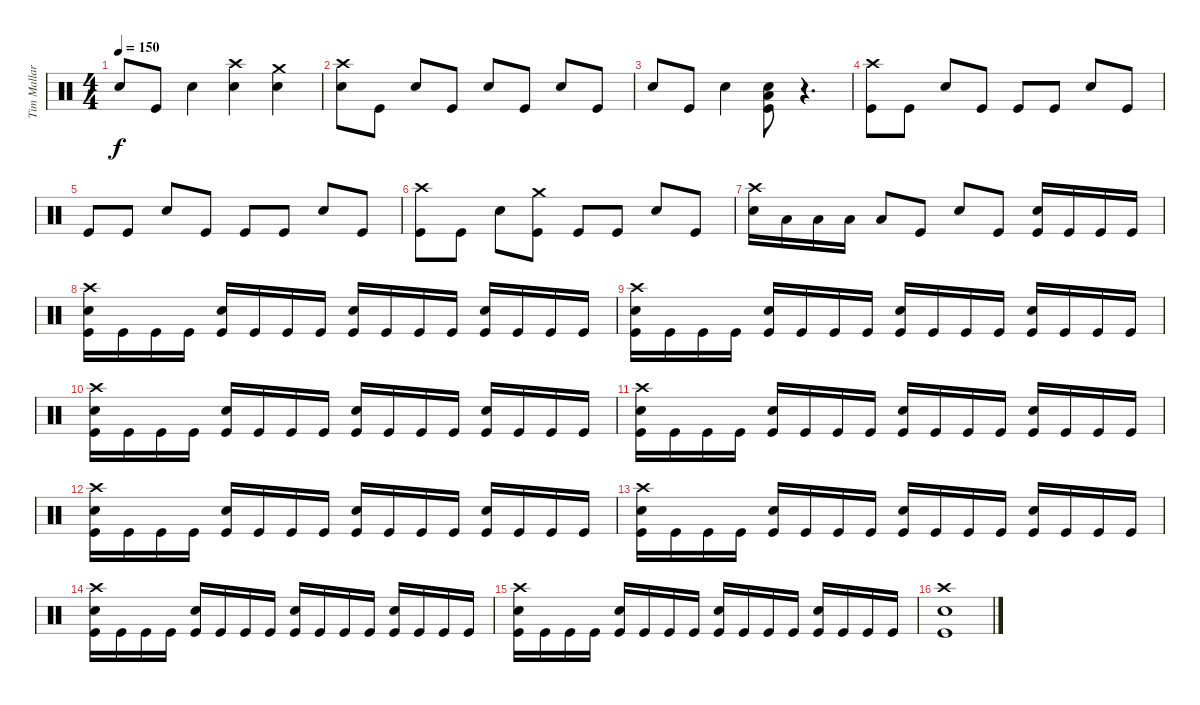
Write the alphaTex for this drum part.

\track ("Tim Mallare-Drums" "Tim Mallar") {instrument percussion}
\staff {score}
\articulation defaults
\ts (4 4)
\tempo 150
\clef neutral
\ks c "Electric Snare (hit)".8{dy f} "Kick (hit)".8 "Electric Snare (hit)".4
("Crash high (hit)" "Electric Snare (hit)").4 ("Crash medium (hit)" "Electric Snare (hit)").4 |
("Crash high (hit)" "Electric Snare (hit)").8 "Kick (hit)".8 "Electric Snare (hit)".8 "Kick (hit)".8 "Electric Snare (hit)".8 "Kick (hit)".8 "Electric Snare (hit)".8 "Kick (hit)".8 |
"Electric Snare (hit)".8 "Kick (hit)".8 "Electric Snare (hit)".4 ("Low Tom (hit)" "Electric Snare (hit)" "Kick (hit)").8 r.4{d} |
("Crash high (hit)" "Kick (hit)").8 "Kick (hit)".8 "Electric Snare (hit)".8 "Kick (hit)".8 "Kick (hit)".8 "Kick (hit)".8 "Electric Snare (hit)".8 "Kick (hit)".8 |
"Kick (hit)".8 "Kick (hit)".8 "Electric Snare (hit)".8 "Kick (hit)".8 "Kick (hit)".8 "Kick (hit)".8 "Electric Snare (hit)".8 "Kick (hit)".8 |
("Crash high (hit)" "Kick (hit)").8 "Kick (hit)".8 "Electric Snare (hit)".8 ("Crash medium (hit)" "Kick (hit)").8 "Kick (hit)".8 "Kick (hit)".8 "Electric Snare (hit)".8 "Kick (hit)".8 |
("Crash high (hit)" "Electric Snare (hit)").16 "Low Tom (hit)".16 "Low Tom (hit)".16 "Low Tom (hit)".16 "Low Tom (hit)".8 "Kick (hit)".8 "Electric Snare (hit)".8 "Kick (hit)".8 ("Electric Snare (hit)" "Kick (hit)").16 "Kick (hit)".16 "Kick (hit)".16 "Kick (hit)".16 |
("Crash high (hit)" "Electric Snare (hit)" "Kick (hit)").16 "Kick (hit)".16 "Kick (hit)".16 "Kick (hit)".16 ("Electric Snare (hit)" "Kick (hit)").16 "Kick (hit)".16 "Kick (hit)".16 "Kick (hit)".16 ("Electric Snare (hit)" "Kick (hit)").16 "Kick (hit)".16 "Kick (hit)".16 "Kick (hit)".16 ("Electric Snare (hit)" "Kick (hit)").16 "Kick (hit)".16 "Kick (hit)".16 "Kick (hit)".16 |
("Crash high (hit)" "Electric Snare (hit)" "Kick (hit)").16 "Kick (hit)".16 "Kick (hit)".16 "Kick (hit)".16 ("Electric Snare (hit)" "Kick (hit)").16 "Kick (hit)".16 "Kick (hit)".16 "Kick (hit)".16 ("Electric Snare (hit)" "Kick (hit)").16 "Kick (hit)".16 "Kick (hit)".16 "Kick (hit)".16 ("Electric Snare (hit)" "Kick (hit)").16 "Kick (hit)".16 "Kick (hit)".16 "Kick (hit)".16 |
("Crash high (hit)" "Electric Snare (hit)" "Kick (hit)").16 "Kick (hit)".16 "Kick (hit)".16 "Kick (hit)".16 ("Electric Snare (hit)" "Kick (hit)").16 "Kick (hit)".16 "Kick (hit)".16 "Kick (hit)".16 ("Electric Snare (hit)" "Kick (hit)").16 "Kick (hit)".16 "Kick (hit)".16 "Kick (hit)".16 ("Electric Snare (hit)" "Kick (hit)").16 "Kick (hit)".16 "Kick (hit)".16 "Kick (hit)".16 |
("Crash high (hit)" "Electric Snare (hit)" "Kick (hit)").16 "Kick (hit)".16 "Kick (hit)".16 "Kick (hit)".16 ("Electric Snare (hit)" "Kick (hit)").16 "Kick (hit)".16 "Kick (hit)".16 "Kick (hit)".16 ("Electric Snare (hit)" "Kick (hit)").16 "Kick (hit)".16 "Kick (hit)".16 "Kick (hit)".16 ("Electric Snare (hit)" "Kick (hit)").16 "Kick (hit)".16 "Kick (hit)".16 "Kick (hit)".16 |
("Crash high (hit)" "Electric Snare (hit)" "Kick (hit)").16 "Kick (hit)".16 "Kick (hit)".16 "Kick (hit)".16 ("Electric Snare (hit)" "Kick (hit)").16 "Kick (hit)".16 "Kick (hit)".16 "Kick (hit)".16 ("Electric Snare (hit)" "Kick (hit)").16 "Kick (hit)".16 "Kick (hit)".16 "Kick (hit)".16 ("Electric Snare (hit)" "Kick (hit)").16 "Kick (hit)".16 "Kick (hit)".16 "Kick (hit)".16 |
("Crash high (hit)" "Electric Snare (hit)" "Kick (hit)").16 "Kick (hit)".16 "Kick (hit)".16 "Kick (hit)".16 ("Electric Snare (hit)" "Kick (hit)").16 "Kick (hit)".16 "Kick (hit)".16 "Kick (hit)".16 ("Electric Snare (hit)" "Kick (hit)").16 "Kick (hit)".16 "Kick (hit)".16 "Kick (hit)".16 ("Electric Snare (hit)" "Kick (hit)").16 "Kick (hit)".16 "Kick (hit)".16 "Kick (hit)".16 |
("Crash high (hit)" "Electric Snare (hit)" "Kick (hit)").16 "Kick (hit)".16 "Kick (hit)".16 "Kick (hit)".16 ("Electric Snare (hit)" "Kick (hit)").16 "Kick (hit)".16 "Kick (hit)".16 "Kick (hit)".16 ("Electric Snare (hit)" "Kick (hit)").16 "Kick (hit)".16 "Kick (hit)".16 "Kick (hit)".16 ("Electric Snare (hit)" "Kick (hit)").16 "Kick (hit)".16 "Kick (hit)".16 "Kick (hit)".16 |
("Crash high (hit)" "Electric Snare (hit)" "Kick (hit)").16 "Kick (hit)".16 "Kick (hit)".16 "Kick (hit)".16 ("Electric Snare (hit)" "Kick (hit)").16 "Kick (hit)".16 "Kick (hit)".16 "Kick (hit)".16 ("Electric Snare (hit)" "Kick (hit)").16 "Kick (hit)".16 "Kick (hit)".16 "Kick (hit)".16 ("Electric Snare (hit)" "Kick (hit)").16 "Kick (hit)".16 "Kick (hit)".16 "Kick (hit)".16 |
("Crash high (hit)" "Electric Snare (hit)" "Kick (hit)").1
